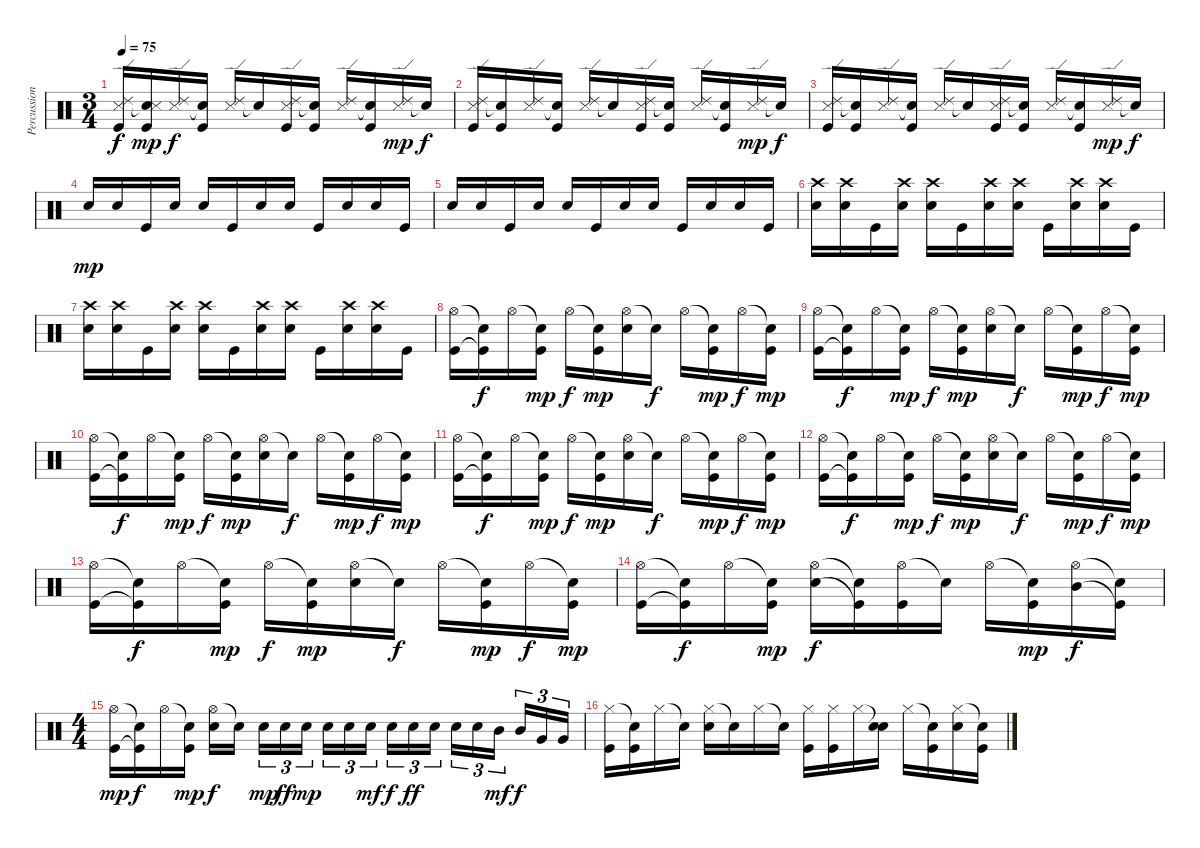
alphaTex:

\track ("Percussion" "Percussion") {instrument percussion}
\staff {score}
\articulation defaults
\ts (3 4)
\tempo 75
\clef neutral
\ks c
("Kick (hit)" "Ride (edge) 2" "Snare (side stick) 3").16{dy f} ("Kick (hit)" "Snare (hit)"{t} "Snare (side stick) 3").16{dy mp} ("Ride (edge) 2" "Snare (side stick) 3").16{dy f} ("Kick (hit)" "Snare (hit)"{t}).16 ("Ride (edge) 2" "Snare (side stick) 3").16 "Snare (hit)"{t}.16 ("Kick (hit)" "Ride (edge) 2" "Snare (side stick) 3").16 ("Kick (hit)" "Snare (hit)"{t}).16 ("Ride (edge) 2" "Snare (side stick) 3").16 ("Kick (hit)" "Snare (hit)"{t}).16 ("Ride (edge) 2" "Snare (side stick) 3").16{dy mp} "Snare (hit)"{t}.16{dy f} |
("Kick (hit)" "Ride (edge) 2" "Snare (side stick) 3").16 ("Kick (hit)" "Snare (hit)"{t}).16 ("Ride (edge) 2" "Snare (side stick) 3").16 ("Kick (hit)" "Snare (hit)"{t}).16 ("Ride (edge) 2" "Snare (side stick) 3").16 "Snare (hit)"{t}.16 ("Kick (hit)" "Ride (edge) 2" "Snare (side stick) 3").16 ("Kick (hit)" "Snare (hit)"{t}).16 ("Ride (edge) 2" "Snare (side stick) 3").16 ("Kick (hit)" "Snare (hit)"{t}).16 ("Ride (edge) 2" "Snare (side stick) 3").16{dy mp} "Snare (hit)"{t}.16{dy f} |
("Kick (hit)" "Ride (edge) 2" "Snare (side stick) 3").16 ("Kick (hit)" "Snare (hit)"{t}).16 ("Ride (edge) 2" "Snare (side stick) 3").16 ("Kick (hit)" "Snare (hit)"{t}).16 ("Ride (edge) 2" "Snare (side stick) 3").16 "Snare (hit)"{t}.16 ("Kick (hit)" "Ride (edge) 2" "Snare (side stick) 3").16 ("Kick (hit)" "Snare (hit)"{t}).16 ("Ride (edge) 2" "Snare (side stick) 3").16 ("Kick (hit)" "Snare (hit)"{t}).16 ("Ride (edge) 2" "Snare (side stick) 3").16{dy mp} "Snare (hit)"{t}.16{dy f} |
"Electric Snare (hit)".16{dy mp} "Electric Snare (hit)".16 "Kick (hit)".16 "Electric Snare (hit)".16 "Electric Snare (hit)".16 "Kick (hit)".16 "Electric Snare (hit)".16 "Electric Snare (hit)".16 "Kick (hit)".16 "Electric Snare (hit)".16 "Electric Snare (hit)".16 "Kick (hit)".16 |
"Electric Snare (hit)".16 "Electric Snare (hit)".16 "Kick (hit)".16 "Electric Snare (hit)".16 "Electric Snare (hit)".16 "Kick (hit)".16 "Electric Snare (hit)".16 "Electric Snare (hit)".16 "Kick (hit)".16 "Electric Snare (hit)".16 "Electric Snare (hit)".16 "Kick (hit)".16 |
("Crash high (hit)" "Electric Snare (hit)").16 ("Crash high (hit)" "Electric Snare (hit)").16 "Kick (hit)".16 ("Crash high (hit)" "Electric Snare (hit)").16 ("Crash high (hit)" "Electric Snare (hit)").16 "Kick (hit)".16 ("Crash high (hit)" "Electric Snare (hit)").16 ("Crash high (hit)" "Electric Snare (hit)").16 "Kick (hit)".16 ("Crash high (hit)" "Electric Snare (hit)").16 ("Crash high (hit)" "Electric Snare (hit)").16 "Kick (hit)".16 |
("Crash high (hit)" "Electric Snare (hit)").16 ("Crash high (hit)" "Electric Snare (hit)").16 "Kick (hit)".16 ("Crash high (hit)" "Electric Snare (hit)").16 ("Crash high (hit)" "Electric Snare (hit)").16 "Kick (hit)".16 ("Crash high (hit)" "Electric Snare (hit)").16 ("Crash high (hit)" "Electric Snare (hit)").16 "Kick (hit)".16 ("Crash high (hit)" "Electric Snare (hit)").16 ("Crash high (hit)" "Electric Snare (hit)").16 "Kick (hit)".16 |
("Hi-Hat (open)" "Kick (hit)").16 ("Snare (hit)"{t} "Kick (hit)"{t}).16{dy f} "Hi-Hat (open)".16 ("Snare (hit)"{t} "Kick (hit)").16{dy mp} "Hi-Hat (open)".16{dy f} ("Snare (hit)"{t} "Kick (hit)").16{dy mp} ("Hi-Hat (open)" "Electric Snare (hit)").16 "Snare (hit)"{t}.16{dy f} "Hi-Hat (open)".16 ("Snare (hit)"{t} "Kick (hit)").16{dy mp} "Hi-Hat (open)".16{dy f} ("Snare (hit)"{t} "Kick (hit)").16{dy mp} |
("Hi-Hat (open)" "Kick (hit)").16 ("Snare (hit)"{t} "Kick (hit)"{t}).16{dy f} "Hi-Hat (open)".16 ("Snare (hit)"{t} "Kick (hit)").16{dy mp} "Hi-Hat (open)".16{dy f} ("Snare (hit)"{t} "Kick (hit)").16{dy mp} ("Hi-Hat (open)" "Electric Snare (hit)").16 "Snare (hit)"{t}.16{dy f} "Hi-Hat (open)".16 ("Snare (hit)"{t} "Kick (hit)").16{dy mp} "Hi-Hat (open)".16{dy f} ("Snare (hit)"{t} "Kick (hit)").16{dy mp} |
("Hi-Hat (open)" "Kick (hit)").16 ("Snare (hit)"{t} "Kick (hit)"{t}).16{dy f} "Hi-Hat (open)".16 ("Snare (hit)"{t} "Kick (hit)").16{dy mp} "Hi-Hat (open)".16{dy f} ("Snare (hit)"{t} "Kick (hit)").16{dy mp} ("Hi-Hat (open)" "Electric Snare (hit)").16 "Snare (hit)"{t}.16{dy f} "Hi-Hat (open)".16 ("Snare (hit)"{t} "Kick (hit)").16{dy mp} "Hi-Hat (open)".16{dy f} ("Snare (hit)"{t} "Kick (hit)").16{dy mp} |
("Hi-Hat (open)" "Kick (hit)").16 ("Snare (hit)"{t} "Kick (hit)"{t}).16{dy f} "Hi-Hat (open)".16 ("Snare (hit)"{t} "Kick (hit)").16{dy mp} "Hi-Hat (open)".16{dy f} ("Snare (hit)"{t} "Kick (hit)").16{dy mp} ("Hi-Hat (open)" "Electric Snare (hit)").16 "Snare (hit)"{t}.16{dy f} "Hi-Hat (open)".16 ("Snare (hit)"{t} "Kick (hit)").16{dy mp} "Hi-Hat (open)".16{dy f} ("Snare (hit)"{t} "Kick (hit)").16{dy mp} |
("Hi-Hat (open)" "Kick (hit)").16 ("Snare (hit)"{t} "Kick (hit)"{t}).16{dy f} "Hi-Hat (open)".16 ("Snare (hit)"{t} "Kick (hit)").16{dy mp} "Hi-Hat (open)".16{dy f} ("Snare (hit)"{t} "Kick (hit)").16{dy mp} ("Hi-Hat (open)" "Electric Snare (hit)").16 "Snare (hit)"{t}.16{dy f} "Hi-Hat (open)".16 ("Snare (hit)"{t} "Kick (hit)").16{dy mp} "Hi-Hat (open)".16{dy f} ("Snare (hit)"{t} "Kick (hit)").16{dy mp} |
("Hi-Hat (open)" "Kick (hit)").16 ("Snare (hit)"{t} "Kick (hit)"{t}).16{dy f} "Hi-Hat (open)".16 ("Snare (hit)"{t} "Kick (hit)").16{dy mp} "Hi-Hat (open)".16{dy f} ("Snare (hit)"{t} "Kick (hit)").16{dy mp} ("Hi-Hat (open)" "Electric Snare (hit)").16 "Snare (hit)"{t}.16{dy f} "Hi-Hat (open)".16 ("Snare (hit)"{t} "Kick (hit)").16{dy mp} "Hi-Hat (open)".16{dy f} ("Snare (hit)"{t} "Kick (hit)").16{dy mp} |
("Hi-Hat (open)" "Kick (hit)").16 ("Snare (hit)"{t} "Kick (hit)"{t}).16{dy f} "Hi-Hat (open)".16 ("Snare (hit)"{t} "Kick (hit)").16{dy mp} ("Hi-Hat (open)" "Electric Snare (hit)").16{dy f} ("Snare (hit)"{t} "Kick (hit)"{t}).16 ("Hi-Hat (open)" "Kick (hit)").16 "Snare (hit)"{t}.16 "Hi-Hat (open)".16 ("Snare (hit)"{t} "Kick (hit)").16{dy mp} ("Hi-Hat (open)" "Mid Tom (hit)").16{dy f} ("Snare (hit)"{t} "Kick (hit)"{t}).16 |
\ts (4 4)
("Hi-Hat (open)" "Kick (hit)").16{dy mp} ("Snare (hit)"{t} "Kick (hit)"{t}).16{dy f} "Hi-Hat (open)".16 ("Snare (hit)"{t} "Kick (hit)").16{dy mp} ("Hi-Hat (open)" "Electric Snare (hit)").16{dy f} "Snare (hit)"{t}.16 "Electric Snare (hit)".16{tu (3 2) dy mp} "Electric Snare (hit)".16{tu (3 2) dy ff} "Electric Snare (hit)".16{tu (3 2) dy mp} "Electric Snare (hit)".16{tu (3 2)} "Electric Snare (hit)".16{tu (3 2)} "Electric Snare (hit)".16{tu (3 2) dy mf} "Electric Snare (hit)".16{tu (3 2) dy f} "Electric Snare (hit)".16{tu (3 2) dy ff} "Electric Snare (hit)".16{tu (3 2)} "Electric Snare (hit)".16{tu (3 2)} "Electric Snare (hit)".16{tu (3 2)} "Mid Tom (hit)".16{tu (3 2) dy mf} "Mid Tom (hit)".16{tu (3 2) dy f} "Very Low Tom (hit)".16{tu (3 2)} "Very Low Tom (hit)".16{tu (3 2)} |
("Hi-Hat (closed)" "Kick (hit)").16 ("Snare (hit)"{t} "Kick (hit)").16 "Hi-Hat (closed)".16 "Snare (hit)"{t}.16 ("Hi-Hat (closed)" "Electric Snare (hit)").16 "Snare (hit)"{t}.16 "Hi-Hat (closed)".16 "Snare (hit)"{t}.16 ("Hi-Hat (closed)" "Kick (hit)").16 ("Hi-Hat (closed)" "Kick (hit)").16 "Hi-Hat (closed)".16 ("Snare (hit)"{t} "Electric Snare (hit)").16 "Hi-Hat (closed)".16 ("Snare (hit)"{t} "Kick (hit)").16 ("Hi-Hat (closed)" "Electric Snare (hit)").16 ("Snare (hit)"{t} "Kick (hit)").16
